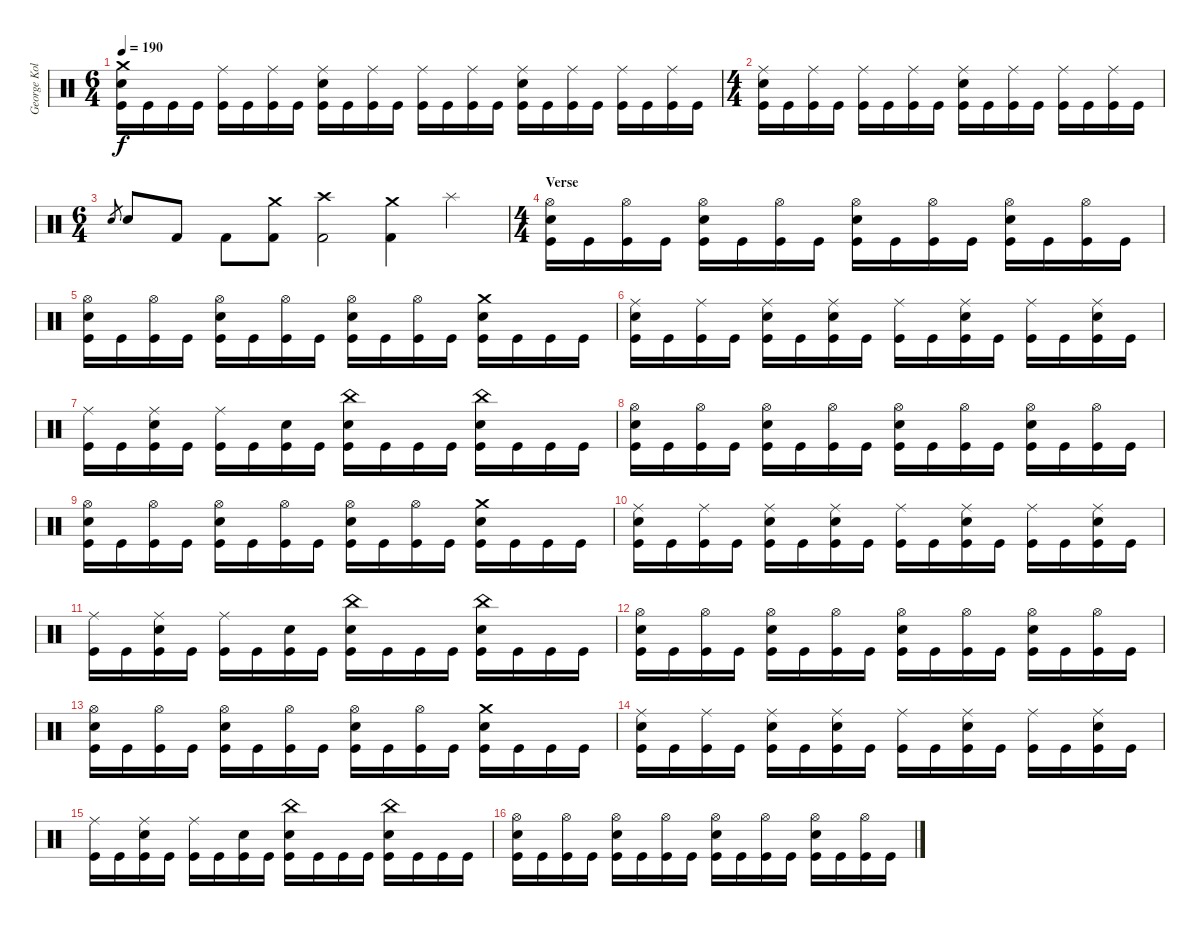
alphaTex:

\track ("George Kollias" "George Kol") {instrument percussion}
\staff {score}
\articulation defaults
\ts (6 4)
\tempo 190
\clef neutral
\ks c
("Crash medium (hit)" "Snare (hit) 2" "Kick (hit)").16{dy f} "Kick (hit)".16 "Kick (hit)".16 "Kick (hit)".16 ("Ride (middle)" "Kick (hit)").16 "Kick (hit)".16 ("Ride (middle)" "Kick (hit)").16 "Kick (hit)".16 ("Ride (middle)" "Snare (hit) 2" "Kick (hit)").16 "Kick (hit)".16 ("Ride (middle)" "Kick (hit)").16 "Kick (hit)".16 ("Ride (middle)" "Kick (hit)").16 "Kick (hit)".16 ("Ride (middle)" "Kick (hit)").16 "Kick (hit)".16 ("Ride (middle)" "Snare (hit) 2" "Kick (hit)").16 "Kick (hit)".16 ("Ride (middle)" "Kick (hit)").16 "Kick (hit)".16 ("Ride (middle)" "Kick (hit)").16 "Kick (hit)".16 ("Ride (middle)" "Kick (hit)").16 "Kick (hit)".16 |
\ts (4 4)
("Ride (middle)" "Snare (hit) 2" "Kick (hit)").16 "Kick (hit)".16 ("Ride (middle)" "Kick (hit)").16 "Kick (hit)".16 ("Ride (middle)" "Kick (hit)").16 "Kick (hit)".16 ("Ride (middle)" "Kick (hit)").16 "Kick (hit)".16 ("Ride (middle)" "Snare (hit) 2" "Kick (hit)").16 "Kick (hit)".16 ("Ride (middle)" "Kick (hit)").16 "Kick (hit)".16 ("Ride (middle)" "Kick (hit)").16 "Kick (hit)".16 ("Ride (middle)" "Kick (hit)").16 "Kick (hit)".16 |
\ts (6 4)
"Snare (hit) 2".8{gr} "Snare (hit) 2".8 "Kick (hit) 2".8 "Kick (hit) 2".8 ("Crash medium (hit)" "Kick (hit) 2").8 ("Crash high (hit)" "Kick (hit) 2").2 ("Crash medium (hit)" "Kick (hit) 2").4 "Splash (hit)".4 |
\ts (4 4)
\section ("" "Verse")
("Hi-Hat (open)" "Snare (hit) 2" "Kick (hit)").16 "Kick (hit)".16 ("Hi-Hat (open)" "Kick (hit)").16 "Kick (hit)".16 ("Hi-Hat (open)" "Snare (hit) 2" "Kick (hit)").16 "Kick (hit)".16 ("Hi-Hat (open)" "Kick (hit)").16 "Kick (hit)".16 ("Hi-Hat (open)" "Snare (hit) 2" "Kick (hit)").16 "Kick (hit)".16 ("Hi-Hat (open)" "Kick (hit)").16 "Kick (hit)".16 ("Hi-Hat (open)" "Snare (hit) 2" "Kick (hit)").16 "Kick (hit)".16 ("Hi-Hat (open)" "Kick (hit)").16 "Kick (hit)".16 |
("Hi-Hat (open)" "Snare (hit) 2" "Kick (hit)").16 "Kick (hit)".16 ("Hi-Hat (open)" "Kick (hit)").16 "Kick (hit)".16 ("Hi-Hat (open)" "Snare (hit) 2" "Kick (hit)").16 "Kick (hit)".16 ("Hi-Hat (open)" "Kick (hit)").16 "Kick (hit)".16 ("Hi-Hat (open)" "Snare (hit) 2" "Kick (hit)").16 "Kick (hit)".16 ("Hi-Hat (open)" "Kick (hit)").16 "Kick (hit)".16 ("Crash medium (hit)" "Snare (hit) 2" "Kick (hit)").16 "Kick (hit)".16 "Kick (hit)".16 "Kick (hit)".16 |
("Ride (middle)" "Snare (hit) 2" "Kick (hit)").16 "Kick (hit)".16 ("Ride (middle)" "Kick (hit)").16 "Kick (hit)".16 ("Ride (middle)" "Snare (hit) 2" "Kick (hit)").16 "Kick (hit)".16 ("Ride (middle)" "Snare (hit) 2" "Kick (hit)").16 "Kick (hit)".16 ("Ride (middle)" "Kick (hit)").16 "Kick (hit)".16 ("Ride (middle)" "Snare (hit) 2" "Kick (hit)").16 "Kick (hit)".16 ("Ride (middle)" "Kick (hit)").16 "Kick (hit)".16 ("Ride (middle)" "Snare (hit) 2" "Kick (hit)").16 "Kick (hit)".16 |
("Ride (middle)" "Kick (hit)").16 "Kick (hit)".16 ("Ride (middle)" "Snare (hit) 2" "Kick (hit)").16 "Kick (hit)".16 ("Ride (middle)" "Kick (hit)").16 "Kick (hit)".16 ("Snare (hit) 2" "Kick (hit)").16 "Kick (hit)".16 ("China (hit)" "Snare (hit) 2" "Kick (hit)").16 "Kick (hit)".16 "Kick (hit)".16 "Kick (hit)".16 ("China (hit)" "Snare (hit) 2" "Kick (hit)").16 "Kick (hit)".16 "Kick (hit)".16 "Kick (hit)".16 |
("Hi-Hat (open)" "Snare (hit) 2" "Kick (hit)").16 "Kick (hit)".16 ("Hi-Hat (open)" "Kick (hit)").16 "Kick (hit)".16 ("Hi-Hat (open)" "Snare (hit) 2" "Kick (hit)").16 "Kick (hit)".16 ("Hi-Hat (open)" "Kick (hit)").16 "Kick (hit)".16 ("Hi-Hat (open)" "Snare (hit) 2" "Kick (hit)").16 "Kick (hit)".16 ("Hi-Hat (open)" "Kick (hit)").16 "Kick (hit)".16 ("Hi-Hat (open)" "Snare (hit) 2" "Kick (hit)").16 "Kick (hit)".16 ("Hi-Hat (open)" "Kick (hit)").16 "Kick (hit)".16 |
("Hi-Hat (open)" "Snare (hit) 2" "Kick (hit)").16 "Kick (hit)".16 ("Hi-Hat (open)" "Kick (hit)").16 "Kick (hit)".16 ("Hi-Hat (open)" "Snare (hit) 2" "Kick (hit)").16 "Kick (hit)".16 ("Hi-Hat (open)" "Kick (hit)").16 "Kick (hit)".16 ("Hi-Hat (open)" "Snare (hit) 2" "Kick (hit)").16 "Kick (hit)".16 ("Hi-Hat (open)" "Kick (hit)").16 "Kick (hit)".16 ("Crash medium (hit)" "Snare (hit) 2" "Kick (hit)").16 "Kick (hit)".16 "Kick (hit)".16 "Kick (hit)".16 |
("Ride (middle)" "Snare (hit) 2" "Kick (hit)").16 "Kick (hit)".16 ("Ride (middle)" "Kick (hit)").16 "Kick (hit)".16 ("Ride (middle)" "Snare (hit) 2" "Kick (hit)").16 "Kick (hit)".16 ("Ride (middle)" "Snare (hit) 2" "Kick (hit)").16 "Kick (hit)".16 ("Ride (middle)" "Kick (hit)").16 "Kick (hit)".16 ("Ride (middle)" "Snare (hit) 2" "Kick (hit)").16 "Kick (hit)".16 ("Ride (middle)" "Kick (hit)").16 "Kick (hit)".16 ("Ride (middle)" "Snare (hit) 2" "Kick (hit)").16 "Kick (hit)".16 |
("Ride (middle)" "Kick (hit)").16 "Kick (hit)".16 ("Ride (middle)" "Snare (hit) 2" "Kick (hit)").16 "Kick (hit)".16 ("Ride (middle)" "Kick (hit)").16 "Kick (hit)".16 ("Snare (hit) 2" "Kick (hit)").16 "Kick (hit)".16 ("China (hit)" "Snare (hit) 2" "Kick (hit)").16 "Kick (hit)".16 "Kick (hit)".16 "Kick (hit)".16 ("China (hit)" "Snare (hit) 2" "Kick (hit)").16 "Kick (hit)".16 "Kick (hit)".16 "Kick (hit)".16 |
("Hi-Hat (open)" "Snare (hit) 2" "Kick (hit)").16 "Kick (hit)".16 ("Hi-Hat (open)" "Kick (hit)").16 "Kick (hit)".16 ("Hi-Hat (open)" "Snare (hit) 2" "Kick (hit)").16 "Kick (hit)".16 ("Hi-Hat (open)" "Kick (hit)").16 "Kick (hit)".16 ("Hi-Hat (open)" "Snare (hit) 2" "Kick (hit)").16 "Kick (hit)".16 ("Hi-Hat (open)" "Kick (hit)").16 "Kick (hit)".16 ("Hi-Hat (open)" "Snare (hit) 2" "Kick (hit)").16 "Kick (hit)".16 ("Hi-Hat (open)" "Kick (hit)").16 "Kick (hit)".16 |
("Hi-Hat (open)" "Snare (hit) 2" "Kick (hit)").16 "Kick (hit)".16 ("Hi-Hat (open)" "Kick (hit)").16 "Kick (hit)".16 ("Hi-Hat (open)" "Snare (hit) 2" "Kick (hit)").16 "Kick (hit)".16 ("Hi-Hat (open)" "Kick (hit)").16 "Kick (hit)".16 ("Hi-Hat (open)" "Snare (hit) 2" "Kick (hit)").16 "Kick (hit)".16 ("Hi-Hat (open)" "Kick (hit)").16 "Kick (hit)".16 ("Crash medium (hit)" "Snare (hit) 2" "Kick (hit)").16 "Kick (hit)".16 "Kick (hit)".16 "Kick (hit)".16 |
("Ride (middle)" "Snare (hit) 2" "Kick (hit)").16 "Kick (hit)".16 ("Ride (middle)" "Kick (hit)").16 "Kick (hit)".16 ("Ride (middle)" "Snare (hit) 2" "Kick (hit)").16 "Kick (hit)".16 ("Ride (middle)" "Snare (hit) 2" "Kick (hit)").16 "Kick (hit)".16 ("Ride (middle)" "Kick (hit)").16 "Kick (hit)".16 ("Ride (middle)" "Snare (hit) 2" "Kick (hit)").16 "Kick (hit)".16 ("Ride (middle)" "Kick (hit)").16 "Kick (hit)".16 ("Ride (middle)" "Snare (hit) 2" "Kick (hit)").16 "Kick (hit)".16 |
("Ride (middle)" "Kick (hit)").16 "Kick (hit)".16 ("Ride (middle)" "Snare (hit) 2" "Kick (hit)").16 "Kick (hit)".16 ("Ride (middle)" "Kick (hit)").16 "Kick (hit)".16 ("Snare (hit) 2" "Kick (hit)").16 "Kick (hit)".16 ("China (hit)" "Snare (hit) 2" "Kick (hit)").16 "Kick (hit)".16 "Kick (hit)".16 "Kick (hit)".16 ("China (hit)" "Snare (hit) 2" "Kick (hit)").16 "Kick (hit)".16 "Kick (hit)".16 "Kick (hit)".16 |
("Hi-Hat (open)" "Snare (hit) 2" "Kick (hit)").16 "Kick (hit)".16 ("Hi-Hat (open)" "Kick (hit)").16 "Kick (hit)".16 ("Hi-Hat (open)" "Snare (hit) 2" "Kick (hit)").16 "Kick (hit)".16 ("Hi-Hat (open)" "Kick (hit)").16 "Kick (hit)".16 ("Hi-Hat (open)" "Snare (hit) 2" "Kick (hit)").16 "Kick (hit)".16 ("Hi-Hat (open)" "Kick (hit)").16 "Kick (hit)".16 ("Hi-Hat (open)" "Snare (hit) 2" "Kick (hit)").16 "Kick (hit)".16 ("Hi-Hat (open)" "Kick (hit)").16 "Kick (hit)".16
